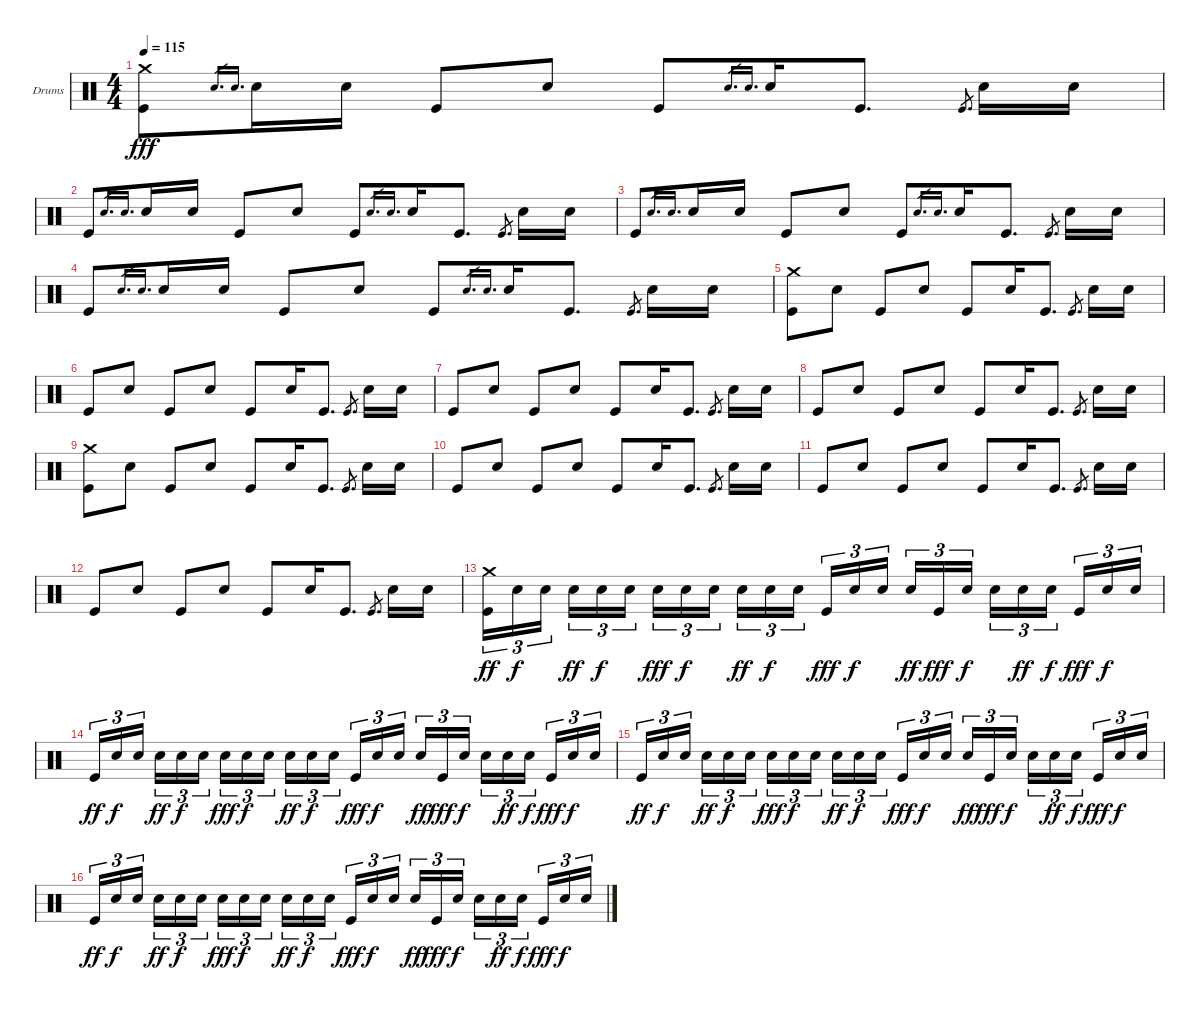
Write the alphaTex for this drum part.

\defaultSystemsLayout 4
\bracketExtendMode groupsimilarinstruments
\firstSystemTrackNameOrientation horizontal
\otherSystemsTrackNameOrientation horizontal
\track ("Drumkit" "Drums") {instrument percussion}
\staff {score}
\articulation defaults
\ts (4 4)
\tempo 115
\clef neutral
\ks c
("Kick (hit)" "Crash medium (hit)").8{dy fff} "Snare (hit) 2".16{d gr} "Snare (hit) 2".16{d gr} "Snare (hit) 2".16 "Snare (hit) 2".16 "Kick (hit)".8 "Snare (hit) 2".8 "Kick (hit)".8 "Snare (hit) 2".16{d gr} "Snare (hit) 2".16{d gr} "Snare (hit) 2".16 "Kick (hit)".8{d} "Kick (hit)".8{d gr} "Snare (hit) 2".16 "Snare (hit) 2".16 |
"Kick (hit)".8 "Snare (hit) 2".16{d gr} "Snare (hit) 2".16{d gr} "Snare (hit) 2".16 "Snare (hit) 2".16 "Kick (hit)".8 "Snare (hit) 2".8 "Kick (hit)".8 "Snare (hit) 2".16{d gr} "Snare (hit) 2".16{d gr} "Snare (hit) 2".16 "Kick (hit)".8{d} "Kick (hit)".8{d gr} "Snare (hit) 2".16 "Snare (hit) 2".16 |
"Kick (hit)".8 "Snare (hit) 2".16{d gr} "Snare (hit) 2".16{d gr} "Snare (hit) 2".16 "Snare (hit) 2".16 "Kick (hit)".8 "Snare (hit) 2".8 "Kick (hit)".8 "Snare (hit) 2".16{d gr} "Snare (hit) 2".16{d gr} "Snare (hit) 2".16 "Kick (hit)".8{d} "Kick (hit)".8{d gr} "Snare (hit) 2".16 "Snare (hit) 2".16 |
"Kick (hit)".8 "Snare (hit) 2".16{d gr} "Snare (hit) 2".16{d gr} "Snare (hit) 2".16 "Snare (hit) 2".16 "Kick (hit)".8 "Snare (hit) 2".8 "Kick (hit)".8 "Snare (hit) 2".16{d gr} "Snare (hit) 2".16{d gr} "Snare (hit) 2".16 "Kick (hit)".8{d} "Kick (hit)".8{d gr} "Snare (hit) 2".16 "Snare (hit) 2".16 |
("Kick (hit)" "Crash medium (hit)").8 "Snare (hit) 2".8 "Kick (hit)".8 "Snare (hit) 2".8 "Kick (hit)".8 "Snare (hit) 2".16 "Kick (hit)".8{d} "Kick (hit)".8{d gr} "Snare (hit) 2".16 "Snare (hit) 2".16 |
"Kick (hit)".8 "Snare (hit) 2".8 "Kick (hit)".8 "Snare (hit) 2".8 "Kick (hit)".8 "Snare (hit) 2".16 "Kick (hit)".8{d} "Kick (hit)".8{d gr} "Snare (hit) 2".16 "Snare (hit) 2".16 |
"Kick (hit)".8 "Snare (hit) 2".8 "Kick (hit)".8 "Snare (hit) 2".8 "Kick (hit)".8 "Snare (hit) 2".16 "Kick (hit)".8{d} "Kick (hit)".8{d gr} "Snare (hit) 2".16 "Snare (hit) 2".16 |
"Kick (hit)".8 "Snare (hit) 2".8 "Kick (hit)".8 "Snare (hit) 2".8 "Kick (hit)".8 "Snare (hit) 2".16 "Kick (hit)".8{d} "Kick (hit)".8{d gr} "Snare (hit) 2".16 "Snare (hit) 2".16 |
("Kick (hit)" "Crash medium (hit)").8 "Snare (hit) 2".8 "Kick (hit)".8 "Snare (hit) 2".8 "Kick (hit)".8 "Snare (hit) 2".16 "Kick (hit)".8{d} "Kick (hit)".8{d gr} "Snare (hit) 2".16 "Snare (hit) 2".16 |
"Kick (hit)".8 "Snare (hit) 2".8 "Kick (hit)".8 "Snare (hit) 2".8 "Kick (hit)".8 "Snare (hit) 2".16 "Kick (hit)".8{d} "Kick (hit)".8{d gr} "Snare (hit) 2".16 "Snare (hit) 2".16 |
"Kick (hit)".8 "Snare (hit) 2".8 "Kick (hit)".8 "Snare (hit) 2".8 "Kick (hit)".8 "Snare (hit) 2".16 "Kick (hit)".8{d} "Kick (hit)".8{d gr} "Snare (hit) 2".16 "Snare (hit) 2".16 |
"Kick (hit)".8 "Snare (hit) 2".8 "Kick (hit)".8 "Snare (hit) 2".8 "Kick (hit)".8 "Snare (hit) 2".16 "Kick (hit)".8{d} "Kick (hit)".8{d gr} "Snare (hit) 2".16 "Snare (hit) 2".16 |
("Kick (hit)" "Crash medium (hit)").16{tu (3 2) dy ff} "Snare (hit) 2".16{tu (3 2) dy f} "Snare (hit) 2".16{tu (3 2)} "Snare (hit) 2".16{tu (3 2) dy ff} "Snare (hit) 2".16{tu (3 2) dy f} "Snare (hit) 2".16{tu (3 2)} "Snare (hit) 2".16{tu (3 2) dy fff} "Snare (hit) 2".16{tu (3 2) dy f} "Snare (hit) 2".16{tu (3 2)} "Snare (hit) 2".16{tu (3 2) dy ff} "Snare (hit) 2".16{tu (3 2) dy f} "Snare (hit) 2".16{tu (3 2)} "Kick (hit)".16{tu (3 2) dy fff} "Snare (hit) 2".16{tu (3 2) dy f} "Snare (hit) 2".16{tu (3 2)} "Snare (hit) 2".16{tu (3 2) dy ff} "Kick (hit)".16{tu (3 2) dy fff} "Snare (hit) 2".16{tu (3 2) dy f} "Snare (hit) 2".16{tu (3 2)} "Snare (hit) 2".16{tu (3 2) dy ff} "Snare (hit) 2".16{tu (3 2) dy f} "Kick (hit)".16{tu (3 2) dy fff} "Snare (hit) 2".16{tu (3 2) dy f} "Snare (hit) 2".16{tu (3 2)} |
"Kick (hit)".16{tu (3 2) dy ff} "Snare (hit) 2".16{tu (3 2) dy f} "Snare (hit) 2".16{tu (3 2)} "Snare (hit) 2".16{tu (3 2) dy ff} "Snare (hit) 2".16{tu (3 2) dy f} "Snare (hit) 2".16{tu (3 2)} "Snare (hit) 2".16{tu (3 2) dy fff} "Snare (hit) 2".16{tu (3 2) dy f} "Snare (hit) 2".16{tu (3 2)} "Snare (hit) 2".16{tu (3 2) dy ff} "Snare (hit) 2".16{tu (3 2) dy f} "Snare (hit) 2".16{tu (3 2)} "Kick (hit)".16{tu (3 2) dy fff} "Snare (hit) 2".16{tu (3 2) dy f} "Snare (hit) 2".16{tu (3 2)} "Snare (hit) 2".16{tu (3 2) dy ff} "Kick (hit)".16{tu (3 2) dy fff} "Snare (hit) 2".16{tu (3 2) dy f} "Snare (hit) 2".16{tu (3 2)} "Snare (hit) 2".16{tu (3 2) dy ff} "Snare (hit) 2".16{tu (3 2) dy f} "Kick (hit)".16{tu (3 2) dy fff} "Snare (hit) 2".16{tu (3 2) dy f} "Snare (hit) 2".16{tu (3 2)} |
"Kick (hit)".16{tu (3 2) dy ff} "Snare (hit) 2".16{tu (3 2) dy f} "Snare (hit) 2".16{tu (3 2)} "Snare (hit) 2".16{tu (3 2) dy ff} "Snare (hit) 2".16{tu (3 2) dy f} "Snare (hit) 2".16{tu (3 2)} "Snare (hit) 2".16{tu (3 2) dy fff} "Snare (hit) 2".16{tu (3 2) dy f} "Snare (hit) 2".16{tu (3 2)} "Snare (hit) 2".16{tu (3 2) dy ff} "Snare (hit) 2".16{tu (3 2) dy f} "Snare (hit) 2".16{tu (3 2)} "Kick (hit)".16{tu (3 2) dy fff} "Snare (hit) 2".16{tu (3 2) dy f} "Snare (hit) 2".16{tu (3 2)} "Snare (hit) 2".16{tu (3 2) dy ff} "Kick (hit)".16{tu (3 2) dy fff} "Snare (hit) 2".16{tu (3 2) dy f} "Snare (hit) 2".16{tu (3 2)} "Snare (hit) 2".16{tu (3 2) dy ff} "Snare (hit) 2".16{tu (3 2) dy f} "Kick (hit)".16{tu (3 2) dy fff} "Snare (hit) 2".16{tu (3 2) dy f} "Snare (hit) 2".16{tu (3 2)} |
"Kick (hit)".16{tu (3 2) dy ff} "Snare (hit) 2".16{tu (3 2) dy f} "Snare (hit) 2".16{tu (3 2)} "Snare (hit) 2".16{tu (3 2) dy ff} "Snare (hit) 2".16{tu (3 2) dy f} "Snare (hit) 2".16{tu (3 2)} "Snare (hit) 2".16{tu (3 2) dy fff} "Snare (hit) 2".16{tu (3 2) dy f} "Snare (hit) 2".16{tu (3 2)} "Snare (hit) 2".16{tu (3 2) dy ff} "Snare (hit) 2".16{tu (3 2) dy f} "Snare (hit) 2".16{tu (3 2)} "Kick (hit)".16{tu (3 2) dy fff} "Snare (hit) 2".16{tu (3 2) dy f} "Snare (hit) 2".16{tu (3 2)} "Snare (hit) 2".16{tu (3 2) dy ff} "Kick (hit)".16{tu (3 2) dy fff} "Snare (hit) 2".16{tu (3 2) dy f} "Snare (hit) 2".16{tu (3 2)} "Snare (hit) 2".16{tu (3 2) dy ff} "Snare (hit) 2".16{tu (3 2) dy f} "Kick (hit)".16{tu (3 2) dy fff} "Snare (hit) 2".16{tu (3 2) dy f} "Snare (hit) 2".16{tu (3 2)}
